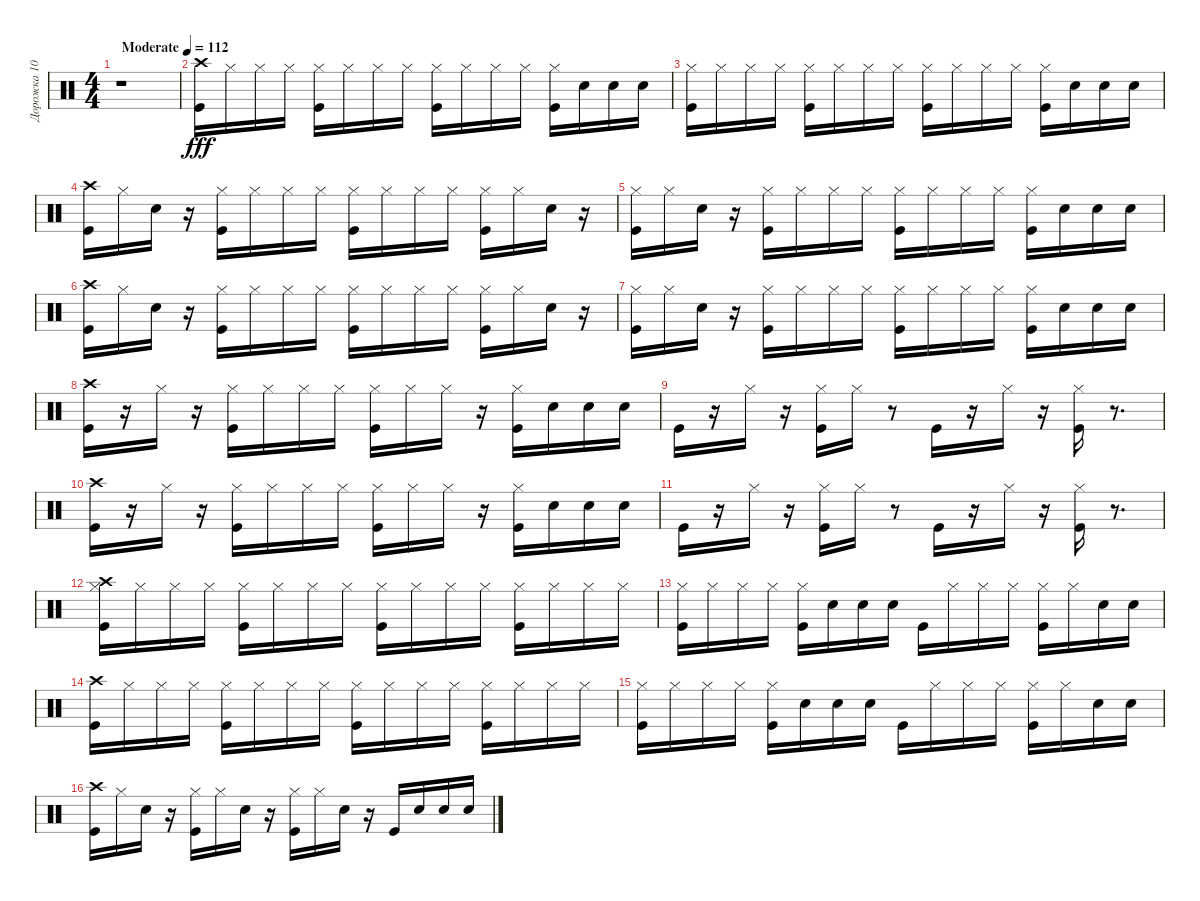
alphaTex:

\track ("Дорожка 10" "Дорожка 10") {instrument percussion}
\staff {score}
\articulation defaults
\ts (4 4)
\tempo (112 "Moderate")
\clef neutral
\ks c
r.1{dy fff} |
("Crash high (hit)" "Kick (hit)").16 "Hi-Hat (closed)".16 "Hi-Hat (closed)".16 "Hi-Hat (closed)".16 ("Hi-Hat (closed)" "Kick (hit)").16 "Hi-Hat (closed)".16 "Hi-Hat (closed)".16 "Hi-Hat (closed)".16 ("Hi-Hat (closed)" "Kick (hit)").16 "Hi-Hat (closed)".16 "Hi-Hat (closed)".16 "Hi-Hat (closed)".16 ("Hi-Hat (closed)" "Kick (hit)").16 "Electric Snare (hit)".16 "Electric Snare (hit)".16 "Electric Snare (hit)".16 |
("Kick (hit)" "Hi-Hat (closed)").16 "Hi-Hat (closed)".16 "Hi-Hat (closed)".16 "Hi-Hat (closed)".16 ("Kick (hit)" "Hi-Hat (closed)").16 "Hi-Hat (closed)".16 "Hi-Hat (closed)".16 "Hi-Hat (closed)".16 ("Hi-Hat (closed)" "Kick (hit)").16 "Hi-Hat (closed)".16 "Hi-Hat (closed)".16 "Hi-Hat (closed)".16 ("Kick (hit)" "Hi-Hat (closed)").16 "Electric Snare (hit)".16 "Electric Snare (hit)".16 "Electric Snare (hit)".16 |
("Kick (hit)" "Crash high (hit)").16 "Hi-Hat (closed)".16 "Electric Snare (hit)".16 r.16 ("Hi-Hat (closed)" "Kick (hit)").16 "Hi-Hat (closed)".16 "Hi-Hat (closed)".16 "Hi-Hat (closed)".16 ("Kick (hit)" "Hi-Hat (closed)").16 "Hi-Hat (closed)".16 "Hi-Hat (closed)".16 "Hi-Hat (closed)".16 ("Kick (hit)" "Hi-Hat (closed)").16 "Hi-Hat (closed)".16 "Electric Snare (hit)".16 r.16 |
("Hi-Hat (closed)" "Kick (hit)").16 "Hi-Hat (closed)".16 "Electric Snare (hit)".16 r.16 ("Kick (hit)" "Hi-Hat (closed)").16 "Hi-Hat (closed)".16 "Hi-Hat (closed)".16 "Hi-Hat (closed)".16 ("Kick (hit)" "Hi-Hat (closed)").16 "Hi-Hat (closed)".16 "Hi-Hat (closed)".16 "Hi-Hat (closed)".16 ("Hi-Hat (closed)" "Kick (hit)").16 "Electric Snare (hit)".16 "Electric Snare (hit)".16 "Electric Snare (hit)".16 |
("Crash high (hit)" "Kick (hit)").16 "Hi-Hat (closed)".16 "Electric Snare (hit)".16 r.16 ("Kick (hit)" "Hi-Hat (closed)").16 "Hi-Hat (closed)".16 "Hi-Hat (closed)".16 "Hi-Hat (closed)".16 ("Kick (hit)" "Hi-Hat (closed)").16 "Hi-Hat (closed)".16 "Hi-Hat (closed)".16 "Hi-Hat (closed)".16 ("Kick (hit)" "Hi-Hat (closed)").16 "Hi-Hat (closed)".16 "Electric Snare (hit)".16 r.16 |
("Kick (hit)" "Hi-Hat (closed)").16 "Hi-Hat (closed)".16 "Electric Snare (hit)".16 r.16 ("Kick (hit)" "Hi-Hat (closed)").16 "Hi-Hat (closed)".16 "Hi-Hat (closed)".16 "Hi-Hat (closed)".16 ("Kick (hit)" "Hi-Hat (closed)").16 "Hi-Hat (closed)".16 "Hi-Hat (closed)".16 "Hi-Hat (closed)".16 ("Hi-Hat (closed)" "Kick (hit)").16 "Electric Snare (hit)".16 "Electric Snare (hit)".16 "Electric Snare (hit)".16 |
("Crash high (hit)" "Kick (hit)").16 r.16 "Hi-Hat (closed)".16 r.16 ("Kick (hit)" "Hi-Hat (closed)").16 "Hi-Hat (closed)".16 "Hi-Hat (closed)".16 "Hi-Hat (closed)".16 ("Hi-Hat (closed)" "Kick (hit)").16 "Hi-Hat (closed)".16 "Hi-Hat (closed)".16 r.16 ("Hi-Hat (closed)" "Kick (hit)").16 "Electric Snare (hit)".16 "Electric Snare (hit)".16 "Electric Snare (hit)".16 |
"Kick (hit)".16 r.16 "Hi-Hat (closed)".16 r.16 ("Hi-Hat (closed)" "Kick (hit)").16 "Hi-Hat (closed)".16 r.8 "Kick (hit)".16 r.16 "Hi-Hat (closed)".16 r.16 ("Hi-Hat (closed)" "Kick (hit)").16 r.8{d} |
("Kick (hit)" "Crash high (hit)").16 r.16 "Hi-Hat (closed)".16 r.16 ("Kick (hit)" "Hi-Hat (closed)").16 "Hi-Hat (closed)".16 "Hi-Hat (closed)".16 "Hi-Hat (closed)".16 ("Hi-Hat (closed)" "Kick (hit)").16 "Hi-Hat (closed)".16 "Hi-Hat (closed)".16 r.16 ("Kick (hit)" "Hi-Hat (closed)").16 "Electric Snare (hit)".16 "Electric Snare (hit)".16 "Electric Snare (hit)".16 |
"Kick (hit)".16 r.16 "Hi-Hat (closed)".16 r.16 ("Kick (hit)" "Hi-Hat (closed)").16 "Hi-Hat (closed)".16 r.8 "Kick (hit)".16 r.16 "Hi-Hat (closed)".16 r.16 ("Kick (hit)" "Hi-Hat (closed)").16 r.8{d} |
("Hi-Hat (closed)" "Crash high (hit)" "Kick (hit)").16 "Hi-Hat (closed)".16 "Hi-Hat (closed)".16 "Hi-Hat (closed)".16 ("Kick (hit)" "Hi-Hat (closed)").16 "Hi-Hat (closed)".16 "Hi-Hat (closed)".16 "Hi-Hat (closed)".16 ("Hi-Hat (closed)" "Kick (hit)").16 "Hi-Hat (closed)".16 "Hi-Hat (closed)".16 "Hi-Hat (closed)".16 ("Kick (hit)" "Hi-Hat (closed)").16 "Hi-Hat (closed)".16 "Hi-Hat (closed)".16 "Hi-Hat (closed)".16 |
("Hi-Hat (closed)" "Kick (hit)").16 "Hi-Hat (closed)".16 "Hi-Hat (closed)".16 "Hi-Hat (closed)".16 ("Hi-Hat (closed)" "Kick (hit)").16 "Electric Snare (hit)".16 "Electric Snare (hit)".16 "Electric Snare (hit)".16 "Kick (hit)".16 "Hi-Hat (closed)".16 "Hi-Hat (closed)".16 "Hi-Hat (closed)".16 ("Kick (hit)" "Hi-Hat (closed)").16 "Hi-Hat (closed)".16 "Electric Snare (hit)".16 "Electric Snare (hit)".16 |
("Kick (hit)" "Crash high (hit)").16 "Hi-Hat (closed)".16 "Hi-Hat (closed)".16 "Hi-Hat (closed)".16 ("Hi-Hat (closed)" "Kick (hit)").16 "Hi-Hat (closed)".16 "Hi-Hat (closed)".16 "Hi-Hat (closed)".16 ("Kick (hit)" "Hi-Hat (closed)").16 "Hi-Hat (closed)".16 "Hi-Hat (closed)".16 "Hi-Hat (closed)".16 ("Kick (hit)" "Hi-Hat (closed)").16 "Hi-Hat (closed)".16 "Hi-Hat (closed)".16 "Hi-Hat (closed)".16 |
("Kick (hit)" "Hi-Hat (closed)").16 "Hi-Hat (closed)".16 "Hi-Hat (closed)".16 "Hi-Hat (closed)".16 ("Kick (hit)" "Hi-Hat (closed)").16 "Electric Snare (hit)".16 "Electric Snare (hit)".16 "Electric Snare (hit)".16 "Kick (hit)".16 "Hi-Hat (closed)".16 "Hi-Hat (closed)".16 "Hi-Hat (closed)".16 ("Kick (hit)" "Hi-Hat (closed)").16 "Hi-Hat (closed)".16 "Electric Snare (hit)".16 "Electric Snare (hit)".16 |
("Crash high (hit)" "Kick (hit)").16 "Hi-Hat (closed)".16 "Electric Snare (hit)".16 r.16 ("Hi-Hat (closed)" "Kick (hit)").16 "Hi-Hat (closed)".16 "Electric Snare (hit)".16 r.16 ("Kick (hit)" "Hi-Hat (closed)").16 "Hi-Hat (closed)".16 "Electric Snare (hit)".16 r.16 "Kick (hit)".16 "Electric Snare (hit)".16 "Electric Snare (hit)".16 "Electric Snare (hit)".16
